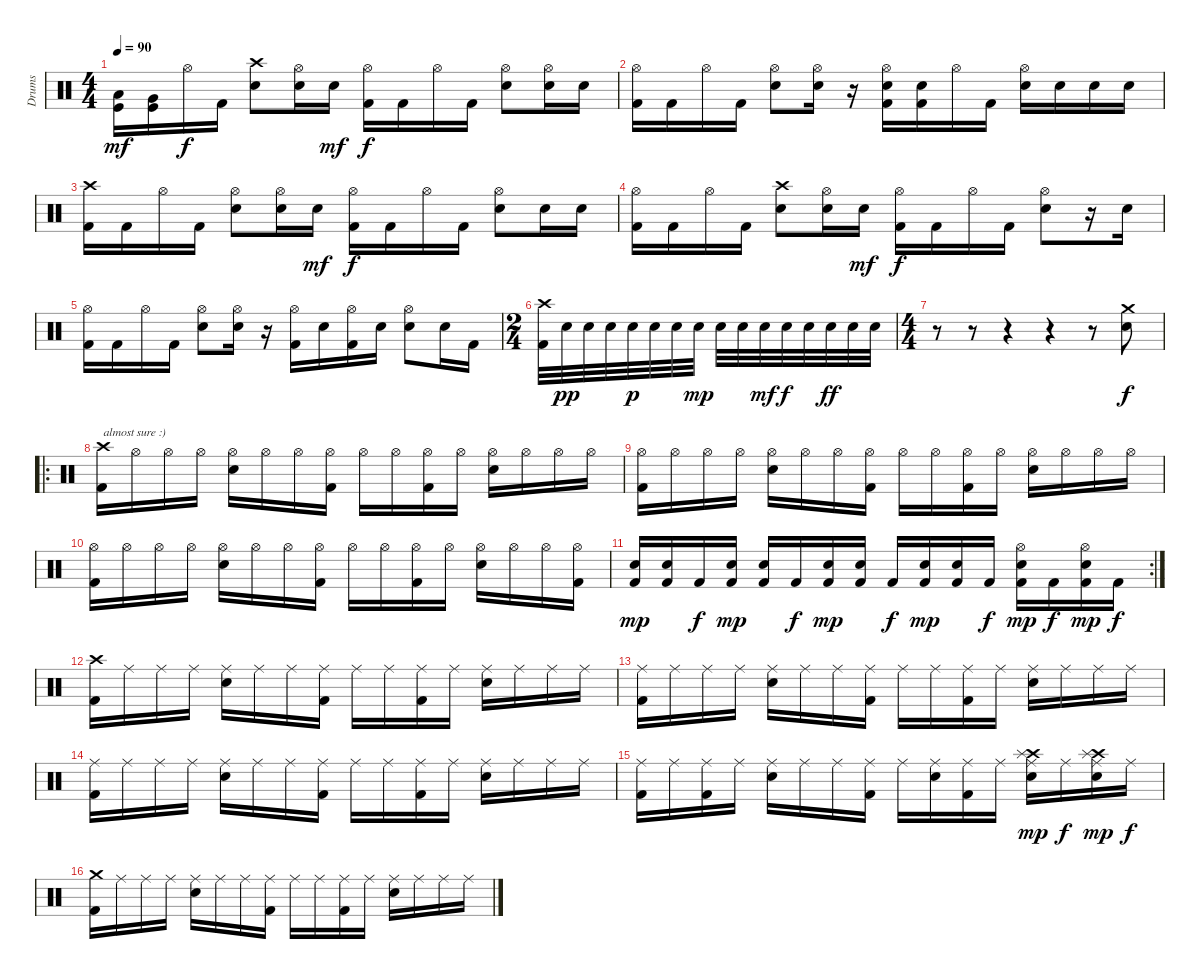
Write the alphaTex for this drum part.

\track ("Drums" "Drums") {instrument percussion}
\staff {score}
\articulation defaults
\ts (4 4)
\tempo 90
\clef neutral
\ks c
("Low Floor Tom (hit)" "Kick (hit)").16{dy mf} ("Very Low Tom (hit)" "Kick (hit)").16 "Hi-Hat (open)".16{dy f} "Kick (hit) 2".16 ("Crash high (hit)" "Electric Snare (hit)").8 ("Hi-Hat (open)" "Electric Snare (hit)").16 "Electric Snare (hit)".16{dy mf} ("Hi-Hat (open)" "Kick (hit) 2").16{dy f} "Kick (hit) 2".16 "Hi-Hat (open)".16 "Kick (hit) 2".16 ("Hi-Hat (open)" "Electric Snare (hit)").8 ("Hi-Hat (open)" "Electric Snare (hit)").16 "Electric Snare (hit)".16 |
("Hi-Hat (open)" "Kick (hit) 2").16 "Kick (hit) 2".16 "Hi-Hat (open)".16 "Kick (hit) 2".16 ("Hi-Hat (open)" "Electric Snare (hit)").8 ("Hi-Hat (open)" "Electric Snare (hit)").16 r.16 ("Hi-Hat (open)" "Electric Snare (hit)" "Kick (hit) 2").16 ("Electric Snare (hit)" "Kick (hit) 2").16 "Hi-Hat (open)".16 "Kick (hit) 2".16 ("Hi-Hat (open)" "Electric Snare (hit)").16 "Electric Snare (hit)".16 "Electric Snare (hit)".16 "Electric Snare (hit)".16 |
("Crash high (hit)" "Kick (hit) 2").16 "Kick (hit) 2".16 "Hi-Hat (open)".16 "Kick (hit) 2".16 ("Hi-Hat (open)" "Electric Snare (hit)").8 ("Hi-Hat (open)" "Electric Snare (hit)").16 "Electric Snare (hit)".16{dy mf} ("Hi-Hat (open)" "Kick (hit) 2").16{dy f} "Kick (hit) 2".16 "Hi-Hat (open)".16 "Kick (hit) 2".16 ("Hi-Hat (open)" "Electric Snare (hit)").8 "Electric Snare (hit)".16 "Electric Snare (hit)".16 |
("Hi-Hat (open)" "Kick (hit) 2").16 "Kick (hit) 2".16 "Hi-Hat (open)".16 "Kick (hit) 2".16 ("Crash high (hit)" "Electric Snare (hit)").8 ("Hi-Hat (open)" "Electric Snare (hit)").16 "Electric Snare (hit)".16{dy mf} ("Hi-Hat (open)" "Kick (hit) 2").16{dy f} "Kick (hit) 2".16 "Hi-Hat (open)".16 "Kick (hit) 2".16 ("Hi-Hat (open)" "Electric Snare (hit)").8 r.16 "Electric Snare (hit)".16 |
("Hi-Hat (open)" "Kick (hit) 2").16 "Kick (hit) 2".16 "Hi-Hat (open)".16 "Kick (hit) 2".16 ("Hi-Hat (open)" "Electric Snare (hit)").8 ("Hi-Hat (open)" "Electric Snare (hit)").16 r.16 ("Hi-Hat (open)" "Kick (hit) 2").16 "Electric Snare (hit)".16 ("Hi-Hat (open)" "Kick (hit) 2").16 "Electric Snare (hit)".16 ("Hi-Hat (open)" "Electric Snare (hit)").8 "Electric Snare (hit)".16 "Kick (hit) 2".16 |
\ts (2 4)
("Crash high (hit)" "Kick (hit) 2").32 "Electric Snare (hit)".32{dy pp} "Electric Snare (hit)".32 "Electric Snare (hit)".32 "Electric Snare (hit)".32{dy p} "Electric Snare (hit)".32 "Electric Snare (hit)".32 "Electric Snare (hit)".32{dy mp} "Electric Snare (hit)".32 "Electric Snare (hit)".32 "Electric Snare (hit)".32{dy mf} "Electric Snare (hit)".32{dy f} "Electric Snare (hit)".32 "Electric Snare (hit)".32{dy ff} "Electric Snare (hit)".32 "Electric Snare (hit)".32 |
\ts (4 4)
r.8 r.8 r.4 r.4 r.8 ("Crash medium (hit)" "Electric Snare (hit)").8{dy f} |
\ro
("Crash high (hit)" "Kick (hit) 2").16{txt "almost sure :)"} "Hi-Hat (open)".16 "Hi-Hat (open)".16 "Hi-Hat (open)".16 ("Hi-Hat (open)" "Electric Snare (hit)").16 "Hi-Hat (open)".16 "Hi-Hat (open)".16 ("Hi-Hat (open)" "Kick (hit) 2").16 "Hi-Hat (open)".16 "Hi-Hat (open)".16 ("Hi-Hat (open)" "Kick (hit) 2").16 "Hi-Hat (open)".16 ("Hi-Hat (open)" "Electric Snare (hit)").16 "Hi-Hat (open)".16 "Hi-Hat (open)".16 "Hi-Hat (open)".16 |
("Hi-Hat (open)" "Kick (hit) 2").16 "Hi-Hat (open)".16 "Hi-Hat (open)".16 "Hi-Hat (open)".16 ("Hi-Hat (open)" "Electric Snare (hit)").16 "Hi-Hat (open)".16 "Hi-Hat (open)".16 ("Hi-Hat (open)" "Kick (hit) 2").16 "Hi-Hat (open)".16 "Hi-Hat (open)".16 ("Hi-Hat (open)" "Kick (hit) 2").16 "Hi-Hat (open)".16 ("Hi-Hat (open)" "Electric Snare (hit)").16 "Hi-Hat (open)".16 "Hi-Hat (open)".16 "Hi-Hat (open)".16 |
("Hi-Hat (open)" "Kick (hit) 2").16 "Hi-Hat (open)".16 "Hi-Hat (open)".16 "Hi-Hat (open)".16 ("Hi-Hat (open)" "Electric Snare (hit)").16 "Hi-Hat (open)".16 "Hi-Hat (open)".16 ("Hi-Hat (open)" "Kick (hit) 2").16 "Hi-Hat (open)".16 "Hi-Hat (open)".16 ("Hi-Hat (open)" "Kick (hit) 2").16 "Hi-Hat (open)".16 ("Hi-Hat (open)" "Electric Snare (hit)").16 "Hi-Hat (open)".16 "Hi-Hat (open)".16 ("Hi-Hat (open)" "Kick (hit) 2").16 |
\rc 2
("Electric Snare (hit)" "Kick (hit) 2").16{dy mp} ("Electric Snare (hit)" "Kick (hit) 2").16 "Kick (hit) 2".16{dy f} ("Electric Snare (hit)" "Kick (hit) 2").16{dy mp} ("Electric Snare (hit)" "Kick (hit) 2").16 "Kick (hit) 2".16{dy f} ("Electric Snare (hit)" "Kick (hit) 2").16{dy mp} ("Electric Snare (hit)" "Kick (hit) 2").16 "Kick (hit) 2".16{dy f} ("Electric Snare (hit)" "Kick (hit) 2").16{dy mp} ("Electric Snare (hit)" "Kick (hit) 2").16 "Kick (hit) 2".16{dy f} ("Hi-Hat (open)" "Electric Snare (hit)" "Kick (hit) 2").16{dy mp} "Kick (hit) 2".16{dy f} ("Hi-Hat (open)" "Electric Snare (hit)" "Kick (hit) 2").16{dy mp} "Kick (hit) 2".16{dy f} |
("Crash high (hit)" "Kick (hit) 2").16 "Ride (middle)".16 "Ride (middle)".16 "Ride (middle)".16 ("Ride (middle)" "Electric Snare (hit)").16 "Ride (middle)".16 "Ride (middle)".16 ("Ride (middle)" "Kick (hit) 2").16 "Ride (middle)".16 "Ride (middle)".16 ("Ride (middle)" "Kick (hit) 2").16 "Ride (middle)".16 ("Ride (middle)" "Electric Snare (hit)").16 "Ride (middle)".16 "Ride (middle)".16 "Ride (middle)".16 |
("Ride (middle)" "Kick (hit) 2").16 "Ride (middle)".16 "Ride (middle)".16 "Ride (middle)".16 ("Ride (middle)" "Electric Snare (hit)").16 "Ride (middle)".16 "Ride (middle)".16 ("Ride (middle)" "Kick (hit) 2").16 "Ride (middle)".16 "Ride (middle)".16 ("Ride (middle)" "Kick (hit) 2").16 "Ride (middle)".16 ("Ride (middle)" "Electric Snare (hit)").16 "Ride (middle)".16 "Ride (middle)".16 "Ride (middle)".16 |
("Ride (middle)" "Kick (hit) 2").16 "Ride (middle)".16 "Ride (middle)".16 "Ride (middle)".16 ("Ride (middle)" "Electric Snare (hit)").16 "Ride (middle)".16 "Ride (middle)".16 ("Ride (middle)" "Kick (hit) 2").16 "Ride (middle)".16 "Ride (middle)".16 ("Ride (middle)" "Kick (hit) 2").16 "Ride (middle)".16 ("Ride (middle)" "Electric Snare (hit)").16 "Ride (middle)".16 "Ride (middle)".16 "Ride (middle)".16 |
("Ride (middle)" "Kick (hit) 2").16 "Ride (middle)".16 ("Ride (middle)" "Kick (hit) 2").16 "Ride (middle)".16 ("Ride (middle)" "Electric Snare (hit)").16 "Ride (middle)".16 "Ride (middle)".16 ("Ride (middle)" "Kick (hit) 2").16 "Ride (middle)".16 ("Ride (middle)" "Electric Snare (hit)").16 ("Ride (middle)" "Kick (hit) 2").16 "Ride (middle)".16 ("Crash high (hit)" "Splash (hit)" "Ride (middle)" "Electric Snare (hit)").16{dy mp} "Ride (middle)".16{dy f} ("Crash high (hit)" "Splash (hit)" "Ride (middle)" "Electric Snare (hit)").16{dy mp} "Ride (middle)".16{dy f} |
("Crash medium (hit)" "Kick (hit) 2").16 "Ride (middle)".16 "Ride (middle)".16 "Ride (middle)".16 ("Ride (middle)" "Electric Snare (hit)").16 "Ride (middle)".16 "Ride (middle)".16 ("Ride (middle)" "Kick (hit) 2").16 "Ride (middle)".16 "Ride (middle)".16 ("Ride (middle)" "Kick (hit) 2").16 "Ride (middle)".16 ("Ride (middle)" "Electric Snare (hit)").16 "Ride (middle)".16 "Ride (middle)".16 "Ride (middle)".16
